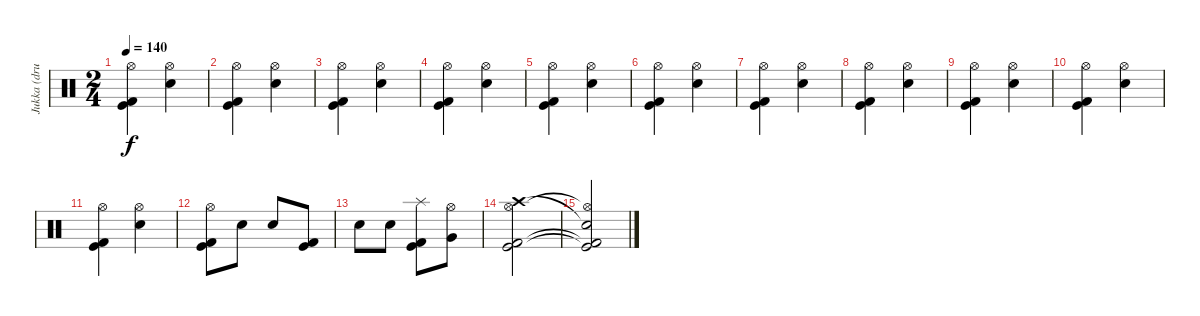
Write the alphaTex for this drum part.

\track ("Jukka (drums)" "Jukka (dru") {instrument percussion}
\staff {score}
\articulation defaults
\ts (2 4)
\tempo 140
\clef neutral
\ks c
("Kick (hit)" "Kick (hit) 2" "Hi-Hat (open)").4{dy f} ("Electric Snare (hit)" "Hi-Hat (open)").4 |
("Kick (hit)" "Kick (hit) 2" "Hi-Hat (open)").4 ("Electric Snare (hit)" "Hi-Hat (open)").4 |
("Kick (hit)" "Kick (hit) 2" "Hi-Hat (open)").4 ("Electric Snare (hit)" "Hi-Hat (open)").4 |
("Kick (hit)" "Kick (hit) 2" "Hi-Hat (open)").4 ("Electric Snare (hit)" "Hi-Hat (open)").4 |
("Kick (hit)" "Kick (hit) 2" "Hi-Hat (open)").4 ("Electric Snare (hit)" "Hi-Hat (open)").4 |
("Kick (hit)" "Kick (hit) 2" "Hi-Hat (open)").4 ("Electric Snare (hit)" "Hi-Hat (open)").4 |
("Kick (hit)" "Kick (hit) 2" "Hi-Hat (open)").4 ("Electric Snare (hit)" "Hi-Hat (open)").4 |
("Kick (hit)" "Kick (hit) 2" "Hi-Hat (open)").4 ("Electric Snare (hit)" "Hi-Hat (open)").4 |
("Kick (hit)" "Kick (hit) 2" "Hi-Hat (open)").4 ("Electric Snare (hit)" "Hi-Hat (open)").4 |
("Kick (hit)" "Kick (hit) 2" "Hi-Hat (open)").4 ("Electric Snare (hit)" "Hi-Hat (open)").4 |
("Kick (hit)" "Kick (hit) 2" "Hi-Hat (open)").4 ("Electric Snare (hit)" "Hi-Hat (open)").4 |
("Kick (hit)" "Kick (hit) 2" "Hi-Hat (open)").8 "Electric Snare (hit)".8 "Electric Snare (hit)".8 ("Kick (hit)" "Kick (hit) 2").8 |
"Electric Snare (hit)".8 "Electric Snare (hit)".8 ("Kick (hit)" "Kick (hit) 2" "Splash (hit)").8 ("Very Low Tom (hit)" "Hi-Hat (open)").8 |
("Kick (hit)" "Kick (hit) 2" "Hi-Hat (open)" "Crash high (hit)").2 |
("Kick (hit)"{t} "Kick (hit) 2"{t} "Hi-Hat (open)"{t} "Snare (hit)"{t}).2
